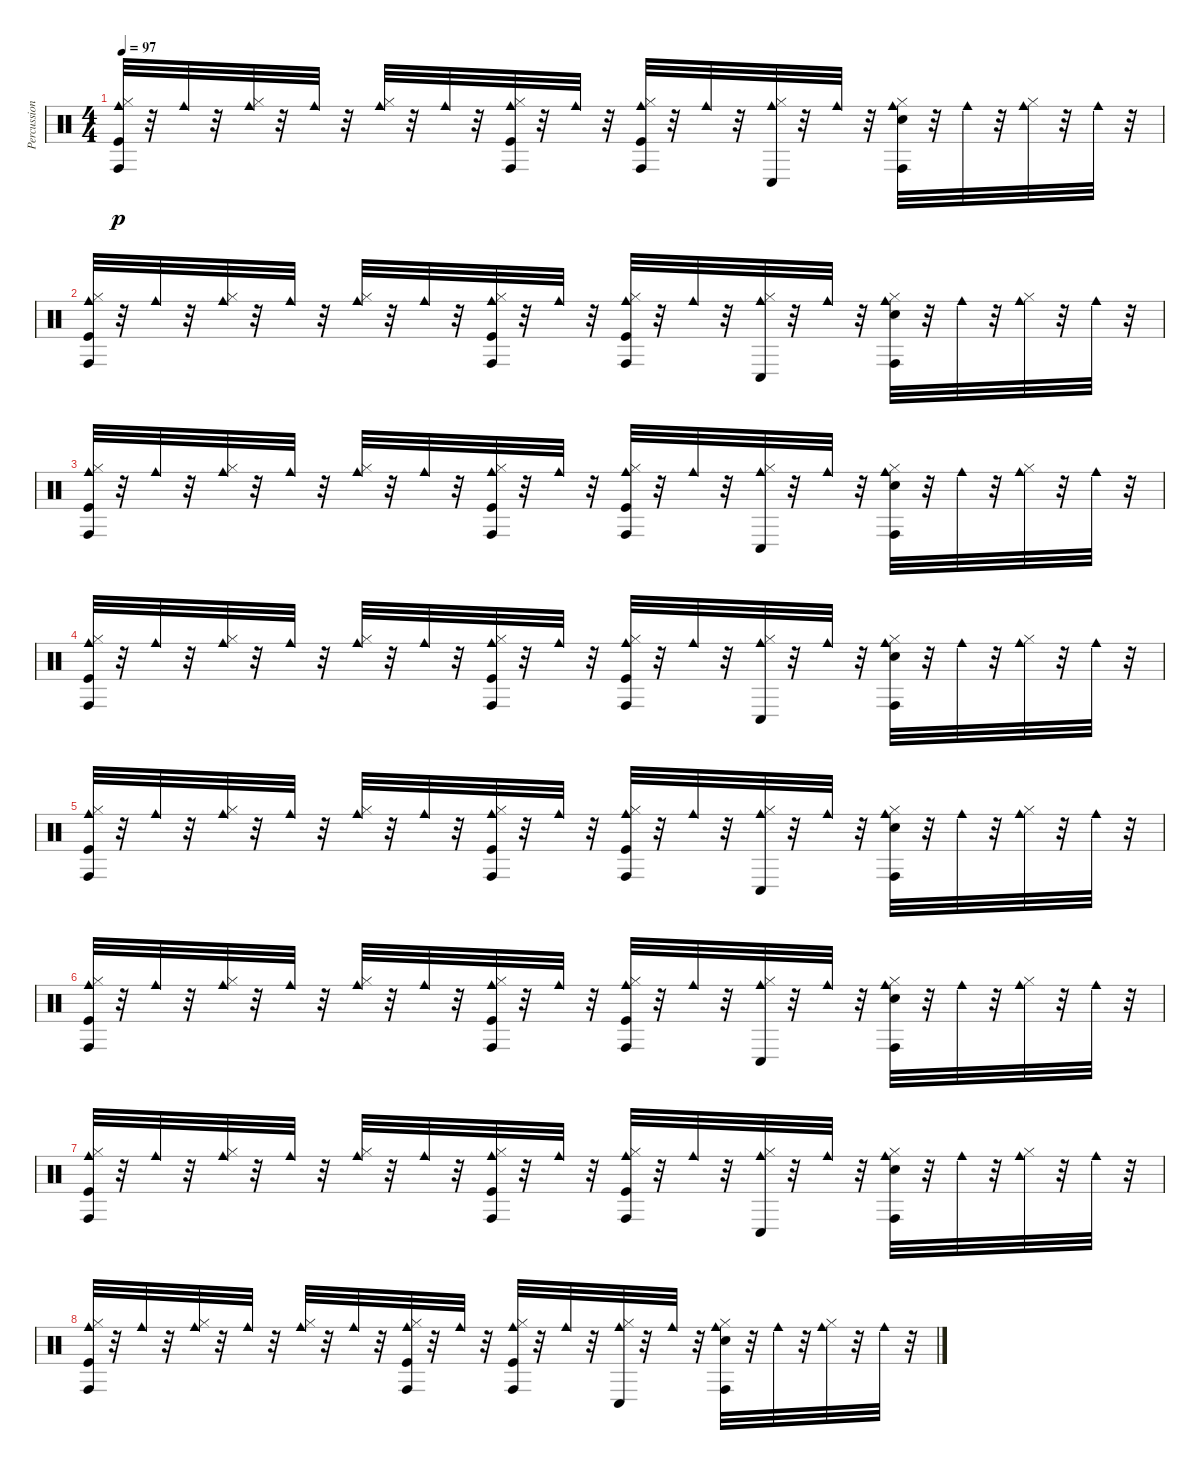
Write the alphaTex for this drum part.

\track ("Percussion" "Percussion") {instrument percussion}
\staff {score}
\articulation defaults
\ts (4 4)
\tempo 97
\clef neutral
\ks c
("Kick (hit)" "Hi-Hat (closed)" "Cowbell medium (hit)" "Conga high (hit)").32{dy p} r.32 "Cowbell medium (hit)".32 r.32 ("Hi-Hat (closed)" "Cowbell medium (hit)").32 r.32 "Cowbell medium (hit)".32 r.32 ("Hi-Hat (closed)" "Cowbell medium (hit)").32 r.32 "Cowbell medium (hit)".32 r.32 ("Kick (hit)" "Hi-Hat (closed)" "Cowbell medium (hit)" "Conga high (hit)").32 r.32 "Cowbell medium (hit)".32 r.32 ("Kick (hit)" "Hi-Hat (closed)" "Cowbell medium (hit)" "Conga high (hit)").32 r.32 "Cowbell medium (hit)".32 r.32 ("Conga low (hit)" "Hi-Hat (closed)" "Cowbell medium (hit)").32 r.32 "Cowbell medium (hit)".32 r.32 ("Conga high (hit)" "Snare (hit) 2" "Hi-Hat (closed)" "Cowbell medium (hit)").32 r.32 "Cowbell medium (hit)".32 r.32 ("Hi-Hat (closed)" "Cowbell medium (hit)").32 r.32 "Cowbell medium (hit)".32 r.32 |
("Kick (hit)" "Hi-Hat (closed)" "Cowbell medium (hit)" "Conga high (hit)").32 r.32 "Cowbell medium (hit)".32 r.32 ("Hi-Hat (closed)" "Cowbell medium (hit)").32 r.32 "Cowbell medium (hit)".32 r.32 ("Hi-Hat (closed)" "Cowbell medium (hit)").32 r.32 "Cowbell medium (hit)".32 r.32 ("Kick (hit)" "Hi-Hat (closed)" "Cowbell medium (hit)" "Conga high (hit)").32 r.32 "Cowbell medium (hit)".32 r.32 ("Kick (hit)" "Hi-Hat (closed)" "Cowbell medium (hit)" "Conga high (hit)").32 r.32 "Cowbell medium (hit)".32 r.32 ("Conga low (hit)" "Hi-Hat (closed)" "Cowbell medium (hit)").32 r.32 "Cowbell medium (hit)".32 r.32 ("Conga high (hit)" "Snare (hit) 2" "Hi-Hat (closed)" "Cowbell medium (hit)").32 r.32 "Cowbell medium (hit)".32 r.32 ("Hi-Hat (closed)" "Cowbell medium (hit)").32 r.32 "Cowbell medium (hit)".32 r.32 |
("Kick (hit)" "Hi-Hat (closed)" "Cowbell medium (hit)" "Conga high (hit)").32 r.32 "Cowbell medium (hit)".32 r.32 ("Hi-Hat (closed)" "Cowbell medium (hit)").32 r.32 "Cowbell medium (hit)".32 r.32 ("Hi-Hat (closed)" "Cowbell medium (hit)").32 r.32 "Cowbell medium (hit)".32 r.32 ("Kick (hit)" "Hi-Hat (closed)" "Cowbell medium (hit)" "Conga high (hit)").32 r.32 "Cowbell medium (hit)".32 r.32 ("Kick (hit)" "Hi-Hat (closed)" "Cowbell medium (hit)" "Conga high (hit)").32 r.32 "Cowbell medium (hit)".32 r.32 ("Conga low (hit)" "Hi-Hat (closed)" "Cowbell medium (hit)").32 r.32 "Cowbell medium (hit)".32 r.32 ("Conga high (hit)" "Snare (hit) 2" "Hi-Hat (closed)" "Cowbell medium (hit)").32 r.32 "Cowbell medium (hit)".32 r.32 ("Hi-Hat (closed)" "Cowbell medium (hit)").32 r.32 "Cowbell medium (hit)".32 r.32 |
("Kick (hit)" "Hi-Hat (closed)" "Cowbell medium (hit)" "Conga high (hit)").32 r.32 "Cowbell medium (hit)".32 r.32 ("Hi-Hat (closed)" "Cowbell medium (hit)").32 r.32 "Cowbell medium (hit)".32 r.32 ("Hi-Hat (closed)" "Cowbell medium (hit)").32 r.32 "Cowbell medium (hit)".32 r.32 ("Kick (hit)" "Hi-Hat (closed)" "Cowbell medium (hit)" "Conga high (hit)").32 r.32 "Cowbell medium (hit)".32 r.32 ("Kick (hit)" "Hi-Hat (closed)" "Cowbell medium (hit)" "Conga high (hit)").32 r.32 "Cowbell medium (hit)".32 r.32 ("Conga low (hit)" "Hi-Hat (closed)" "Cowbell medium (hit)").32 r.32 "Cowbell medium (hit)".32 r.32 ("Conga high (hit)" "Snare (hit) 2" "Hi-Hat (closed)" "Cowbell medium (hit)").32 r.32 "Cowbell medium (hit)".32 r.32 ("Hi-Hat (closed)" "Cowbell medium (hit)").32 r.32 "Cowbell medium (hit)".32 r.32 |
("Kick (hit)" "Hi-Hat (closed)" "Cowbell medium (hit)" "Conga high (hit)").32 r.32 "Cowbell medium (hit)".32 r.32 ("Hi-Hat (closed)" "Cowbell medium (hit)").32 r.32 "Cowbell medium (hit)".32 r.32 ("Hi-Hat (closed)" "Cowbell medium (hit)").32 r.32 "Cowbell medium (hit)".32 r.32 ("Kick (hit)" "Hi-Hat (closed)" "Cowbell medium (hit)" "Conga high (hit)").32 r.32 "Cowbell medium (hit)".32 r.32 ("Kick (hit)" "Hi-Hat (closed)" "Cowbell medium (hit)" "Conga high (hit)").32 r.32 "Cowbell medium (hit)".32 r.32 ("Conga low (hit)" "Hi-Hat (closed)" "Cowbell medium (hit)").32 r.32 "Cowbell medium (hit)".32 r.32 ("Conga high (hit)" "Snare (hit) 2" "Hi-Hat (closed)" "Cowbell medium (hit)").32 r.32 "Cowbell medium (hit)".32 r.32 ("Hi-Hat (closed)" "Cowbell medium (hit)").32 r.32 "Cowbell medium (hit)".32 r.32 |
("Kick (hit)" "Hi-Hat (closed)" "Cowbell medium (hit)" "Conga high (hit)").32 r.32 "Cowbell medium (hit)".32 r.32 ("Hi-Hat (closed)" "Cowbell medium (hit)").32 r.32 "Cowbell medium (hit)".32 r.32 ("Hi-Hat (closed)" "Cowbell medium (hit)").32 r.32 "Cowbell medium (hit)".32 r.32 ("Kick (hit)" "Hi-Hat (closed)" "Cowbell medium (hit)" "Conga high (hit)").32 r.32 "Cowbell medium (hit)".32 r.32 ("Kick (hit)" "Hi-Hat (closed)" "Cowbell medium (hit)" "Conga high (hit)").32 r.32 "Cowbell medium (hit)".32 r.32 ("Conga low (hit)" "Hi-Hat (closed)" "Cowbell medium (hit)").32 r.32 "Cowbell medium (hit)".32 r.32 ("Conga high (hit)" "Snare (hit) 2" "Hi-Hat (closed)" "Cowbell medium (hit)").32 r.32 "Cowbell medium (hit)".32 r.32 ("Hi-Hat (closed)" "Cowbell medium (hit)").32 r.32 "Cowbell medium (hit)".32 r.32 |
("Kick (hit)" "Hi-Hat (closed)" "Cowbell medium (hit)" "Conga high (hit)").32 r.32 "Cowbell medium (hit)".32 r.32 ("Hi-Hat (closed)" "Cowbell medium (hit)").32 r.32 "Cowbell medium (hit)".32 r.32 ("Hi-Hat (closed)" "Cowbell medium (hit)").32 r.32 "Cowbell medium (hit)".32 r.32 ("Kick (hit)" "Hi-Hat (closed)" "Cowbell medium (hit)" "Conga high (hit)").32 r.32 "Cowbell medium (hit)".32 r.32 ("Kick (hit)" "Hi-Hat (closed)" "Cowbell medium (hit)" "Conga high (hit)").32 r.32 "Cowbell medium (hit)".32 r.32 ("Conga low (hit)" "Hi-Hat (closed)" "Cowbell medium (hit)").32 r.32 "Cowbell medium (hit)".32 r.32 ("Conga high (hit)" "Snare (hit) 2" "Hi-Hat (closed)" "Cowbell medium (hit)").32 r.32 "Cowbell medium (hit)".32 r.32 ("Hi-Hat (closed)" "Cowbell medium (hit)").32 r.32 "Cowbell medium (hit)".32 r.32 |
("Kick (hit)" "Hi-Hat (closed)" "Cowbell medium (hit)" "Conga high (hit)").32 r.32 "Cowbell medium (hit)".32 r.32 ("Hi-Hat (closed)" "Cowbell medium (hit)").32 r.32 "Cowbell medium (hit)".32 r.32 ("Hi-Hat (closed)" "Cowbell medium (hit)").32 r.32 "Cowbell medium (hit)".32 r.32 ("Kick (hit)" "Hi-Hat (closed)" "Cowbell medium (hit)" "Conga high (hit)").32 r.32 "Cowbell medium (hit)".32 r.32 ("Kick (hit)" "Hi-Hat (closed)" "Cowbell medium (hit)" "Conga high (hit)").32 r.32 "Cowbell medium (hit)".32 r.32 ("Conga low (hit)" "Hi-Hat (closed)" "Cowbell medium (hit)").32 r.32 "Cowbell medium (hit)".32 r.32 ("Conga high (hit)" "Snare (hit) 2" "Hi-Hat (closed)" "Cowbell medium (hit)").32 r.32 "Cowbell medium (hit)".32 r.32 ("Hi-Hat (closed)" "Cowbell medium (hit)").32 r.32 "Cowbell medium (hit)".32 r.32
